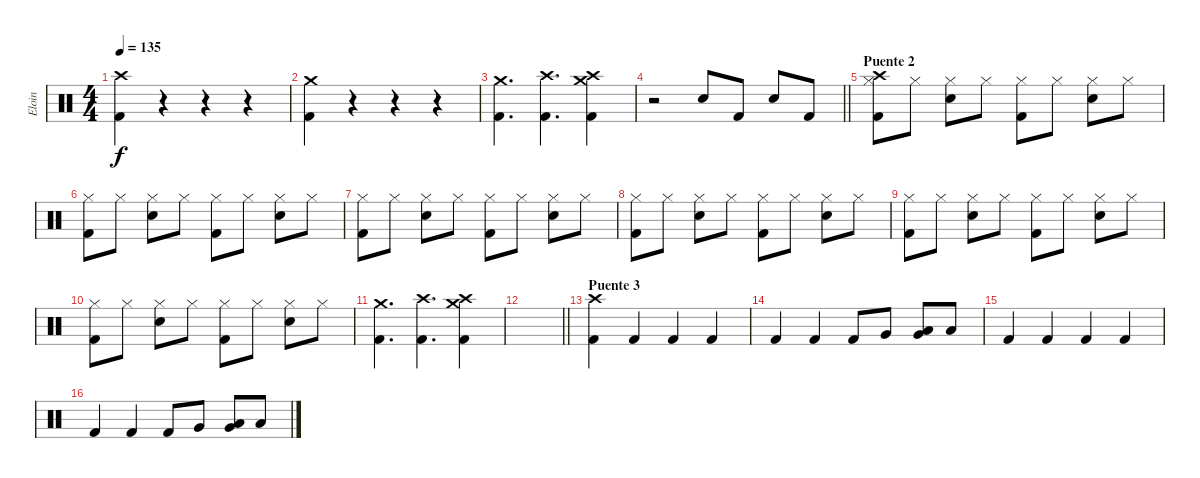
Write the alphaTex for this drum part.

\track ("Eloin" "Eloin") {instrument percussion}
\staff {score}
\articulation defaults
\ts (4 4)
\tempo 135
\clef neutral
\ks c
("Crash high (hit)" "Kick (hit) 2").4{dy f} r.4 r.4 r.4 |
("Crash medium (hit)" "Kick (hit) 2").4 r.4 r.4 r.4 |
("Kick (hit) 2" "Crash medium (hit)").4{d} ("Kick (hit) 2" "Crash high (hit)").4{d} ("Kick (hit) 2" "Crash high (hit)" "Crash medium (hit)").4 |
\barLineRight lightlight
r.2 "Electric Snare (hit)".8 "Kick (hit) 2".8 "Electric Snare (hit)".8 "Kick (hit) 2".8 |
\section ("" "Puente 2")
("Crash high (hit)" "Hi-Hat (closed)" "Kick (hit) 2").8 "Hi-Hat (closed)".8 ("Hi-Hat (closed)" "Electric Snare (hit)").8 "Hi-Hat (closed)".8 ("Hi-Hat (closed)" "Kick (hit) 2").8 "Hi-Hat (closed)".8 ("Hi-Hat (closed)" "Electric Snare (hit)").8 "Hi-Hat (closed)".8 |
("Hi-Hat (closed)" "Kick (hit) 2").8 "Hi-Hat (closed)".8 ("Hi-Hat (closed)" "Electric Snare (hit)").8 "Hi-Hat (closed)".8 ("Hi-Hat (closed)" "Kick (hit) 2").8 "Hi-Hat (closed)".8 ("Hi-Hat (closed)" "Electric Snare (hit)").8 "Hi-Hat (closed)".8 |
("Hi-Hat (closed)" "Kick (hit) 2").8 "Hi-Hat (closed)".8 ("Hi-Hat (closed)" "Electric Snare (hit)").8 "Hi-Hat (closed)".8 ("Hi-Hat (closed)" "Kick (hit) 2").8 "Hi-Hat (closed)".8 ("Hi-Hat (closed)" "Electric Snare (hit)").8 "Hi-Hat (closed)".8 |
("Hi-Hat (closed)" "Kick (hit) 2").8 "Hi-Hat (closed)".8 ("Hi-Hat (closed)" "Electric Snare (hit)").8 "Hi-Hat (closed)".8 ("Hi-Hat (closed)" "Kick (hit) 2").8 "Hi-Hat (closed)".8 ("Hi-Hat (closed)" "Electric Snare (hit)").8 "Hi-Hat (closed)".8 |
("Hi-Hat (closed)" "Kick (hit) 2").8 "Hi-Hat (closed)".8 ("Hi-Hat (closed)" "Electric Snare (hit)").8 "Hi-Hat (closed)".8 ("Hi-Hat (closed)" "Kick (hit) 2").8 "Hi-Hat (closed)".8 ("Hi-Hat (closed)" "Electric Snare (hit)").8 "Hi-Hat (closed)".8 |
("Hi-Hat (closed)" "Kick (hit) 2").8 "Hi-Hat (closed)".8 ("Hi-Hat (closed)" "Electric Snare (hit)").8 "Hi-Hat (closed)".8 ("Hi-Hat (closed)" "Kick (hit) 2").8 "Hi-Hat (closed)".8 ("Hi-Hat (closed)" "Electric Snare (hit)").8 "Hi-Hat (closed)".8 |
("Kick (hit) 2" "Crash medium (hit)").4{d} ("Kick (hit) 2" "Crash high (hit)").4{d} ("Kick (hit) 2" "Crash high (hit)" "Crash medium (hit)").4 |
\barLineRight lightlight
|
\section ("" "Puente 3")
("Crash high (hit)" "Kick (hit) 2").4 "Kick (hit) 2".4 "Kick (hit) 2".4 "Kick (hit) 2".4 |
"Kick (hit) 2".4 "Kick (hit) 2".4 "Kick (hit) 2".8 "Very Low Tom (hit)".8 ("Low Floor Tom (hit)" "Very Low Tom (hit)").8 "Low Floor Tom (hit)".8 |
"Kick (hit) 2".4 "Kick (hit) 2".4 "Kick (hit) 2".4 "Kick (hit) 2".4 |
"Kick (hit) 2".4 "Kick (hit) 2".4 "Kick (hit) 2".8 "Very Low Tom (hit)".8 ("Low Floor Tom (hit)" "Very Low Tom (hit)").8 "Low Floor Tom (hit)".8
